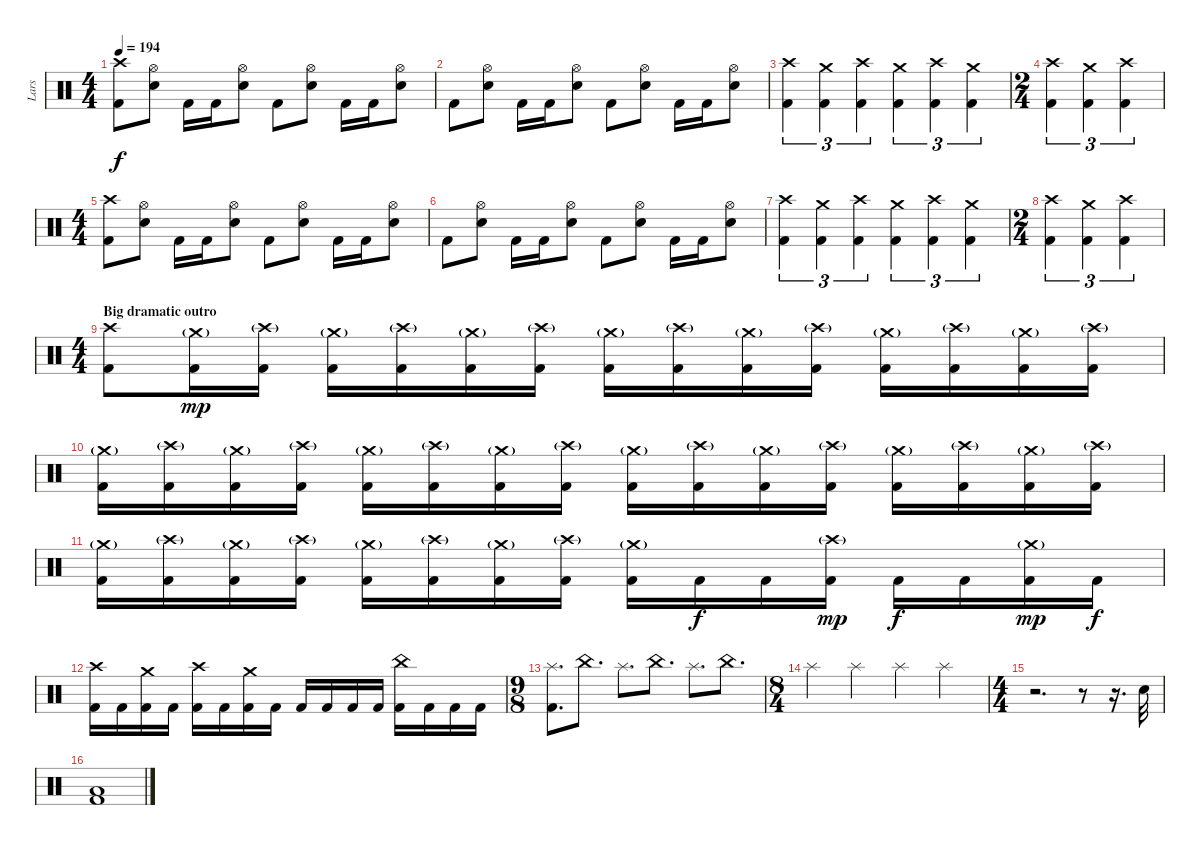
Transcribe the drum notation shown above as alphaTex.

\track ("Lars" "Lars") {instrument percussion}
\staff {score}
\articulation defaults
\ts (4 4)
\tempo 194
\clef neutral
\ks c
("Kick (hit) 2" "Crash high (hit)").8{dy f} ("Electric Snare (hit)" "Hi-Hat (open)").8 "Kick (hit) 2".16 "Kick (hit) 2".16 ("Electric Snare (hit)" "Hi-Hat (open)").8 "Kick (hit) 2".8 ("Electric Snare (hit)" "Hi-Hat (open)").8 "Kick (hit) 2".16 "Kick (hit) 2".16 ("Electric Snare (hit)" "Hi-Hat (open)").8 |
"Kick (hit) 2".8 ("Electric Snare (hit)" "Hi-Hat (open)").8 "Kick (hit) 2".16 "Kick (hit) 2".16 ("Electric Snare (hit)" "Hi-Hat (open)").8 "Kick (hit) 2".8 ("Electric Snare (hit)" "Hi-Hat (open)").8 "Kick (hit) 2".16 "Kick (hit) 2".16 ("Electric Snare (hit)" "Hi-Hat (open)").8 |
("Kick (hit) 2" "Crash high (hit)").4{tu (3 2)} ("Kick (hit) 2" "Crash medium (hit)").4{tu (3 2)} ("Kick (hit) 2" "Crash high (hit)").4{tu (3 2)} ("Kick (hit) 2" "Crash medium (hit)").4{tu (3 2)} ("Kick (hit) 2" "Crash high (hit)").4{tu (3 2)} ("Kick (hit) 2" "Crash medium (hit)").4{tu (3 2)} |
\ts (2 4)
("Kick (hit) 2" "Crash high (hit)").4{tu (3 2)} ("Kick (hit) 2" "Crash medium (hit)").4{tu (3 2)} ("Kick (hit) 2" "Crash high (hit)").4{tu (3 2)} |
\ts (4 4)
("Kick (hit) 2" "Crash high (hit)").8 ("Electric Snare (hit)" "Hi-Hat (open)").8 "Kick (hit) 2".16 "Kick (hit) 2".16 ("Electric Snare (hit)" "Hi-Hat (open)").8 "Kick (hit) 2".8 ("Electric Snare (hit)" "Hi-Hat (open)").8 "Kick (hit) 2".16 "Kick (hit) 2".16 ("Electric Snare (hit)" "Hi-Hat (open)").8 |
"Kick (hit) 2".8 ("Electric Snare (hit)" "Hi-Hat (open)").8 "Kick (hit) 2".16 "Kick (hit) 2".16 ("Electric Snare (hit)" "Hi-Hat (open)").8 "Kick (hit) 2".8 ("Electric Snare (hit)" "Hi-Hat (open)").8 "Kick (hit) 2".16 "Kick (hit) 2".16 ("Electric Snare (hit)" "Hi-Hat (open)").8 |
("Kick (hit) 2" "Crash high (hit)").4{tu (3 2)} ("Kick (hit) 2" "Crash medium (hit)").4{tu (3 2)} ("Kick (hit) 2" "Crash high (hit)").4{tu (3 2)} ("Kick (hit) 2" "Crash medium (hit)").4{tu (3 2)} ("Kick (hit) 2" "Crash high (hit)").4{tu (3 2)} ("Kick (hit) 2" "Crash medium (hit)").4{tu (3 2)} |
\ts (2 4)
("Kick (hit) 2" "Crash high (hit)").4{tu (3 2)} ("Kick (hit) 2" "Crash medium (hit)").4{tu (3 2)} ("Kick (hit) 2" "Crash high (hit)").4{tu (3 2)} |
\ts (4 4)
\section ("" "Big dramatic outro")
("Kick (hit) 2" "Crash high (hit)").8 ("Kick (hit) 2" "Crash medium (hit)"{g}).16{dy mp} ("Kick (hit) 2" "Crash high (hit)"{g}).16 ("Kick (hit) 2" "Crash medium (hit)"{g}).16 ("Kick (hit) 2" "Crash high (hit)"{g}).16 ("Kick (hit) 2" "Crash medium (hit)"{g}).16 ("Kick (hit) 2" "Crash high (hit)"{g}).16 ("Kick (hit) 2" "Crash medium (hit)"{g}).16 ("Kick (hit) 2" "Crash high (hit)"{g}).16 ("Kick (hit) 2" "Crash medium (hit)"{g}).16 ("Kick (hit) 2" "Crash high (hit)"{g}).16 ("Kick (hit) 2" "Crash medium (hit)"{g}).16 ("Kick (hit) 2" "Crash high (hit)"{g}).16 ("Kick (hit) 2" "Crash medium (hit)"{g}).16 ("Kick (hit) 2" "Crash high (hit)"{g}).16 |
("Kick (hit) 2" "Crash medium (hit)"{g}).16 ("Kick (hit) 2" "Crash high (hit)"{g}).16 ("Kick (hit) 2" "Crash medium (hit)"{g}).16 ("Kick (hit) 2" "Crash high (hit)"{g}).16 ("Kick (hit) 2" "Crash medium (hit)"{g}).16 ("Kick (hit) 2" "Crash high (hit)"{g}).16 ("Kick (hit) 2" "Crash medium (hit)"{g}).16 ("Kick (hit) 2" "Crash high (hit)"{g}).16 ("Kick (hit) 2" "Crash medium (hit)"{g}).16 ("Kick (hit) 2" "Crash high (hit)"{g}).16 ("Kick (hit) 2" "Crash medium (hit)"{g}).16 ("Kick (hit) 2" "Crash high (hit)"{g}).16 ("Kick (hit) 2" "Crash medium (hit)"{g}).16 ("Kick (hit) 2" "Crash high (hit)"{g}).16 ("Kick (hit) 2" "Crash medium (hit)"{g}).16 ("Kick (hit) 2" "Crash high (hit)"{g}).16 |
("Kick (hit) 2" "Crash medium (hit)"{g}).16 ("Kick (hit) 2" "Crash high (hit)"{g}).16 ("Kick (hit) 2" "Crash medium (hit)"{g}).16 ("Kick (hit) 2" "Crash high (hit)"{g}).16 ("Kick (hit) 2" "Crash medium (hit)"{g}).16 ("Kick (hit) 2" "Crash high (hit)"{g}).16 ("Kick (hit) 2" "Crash medium (hit)"{g}).16 ("Kick (hit) 2" "Crash high (hit)"{g}).16 ("Kick (hit) 2" "Crash medium (hit)"{g}).16 "Kick (hit) 2".16{dy f} "Kick (hit) 2".16 ("Kick (hit) 2" "Crash high (hit)"{g}).16{dy mp} "Kick (hit) 2".16{dy f} "Kick (hit) 2".16 ("Kick (hit) 2" "Crash medium (hit)"{g}).16{dy mp} "Kick (hit) 2".16{dy f} |
("Kick (hit) 2" "Crash high (hit)").16 "Kick (hit) 2".16 ("Kick (hit) 2" "Crash medium (hit)").16 "Kick (hit) 2".16 ("Kick (hit) 2" "Crash high (hit)").16 "Kick (hit) 2".16 ("Kick (hit) 2" "Crash medium (hit)").16 "Kick (hit) 2".16 "Kick (hit) 2".16 "Kick (hit) 2".16 "Kick (hit) 2".16 "Kick (hit) 2".16 ("Kick (hit) 2" "China (hit)").16 "Kick (hit) 2".16 "Kick (hit) 2".16 "Kick (hit) 2".16 |
\ts (9 8)
("Kick (hit) 2" "Splash (hit)").8{d} "China (hit)".8{d} "Splash (hit)".8{d} "China (hit)".8{d} "Splash (hit)".8{d} "China (hit)".8{d} |
\ts (8 4)
"Splash (hit)".2 "Splash (hit)".2 "Splash (hit)".2 "Splash (hit)".2 |
\ts (4 4)
r.2{d} r.8 r.16{d} "Electric Snare (hit)".32 |
("Low Tom (hit)" "Kick (hit) 2").1
